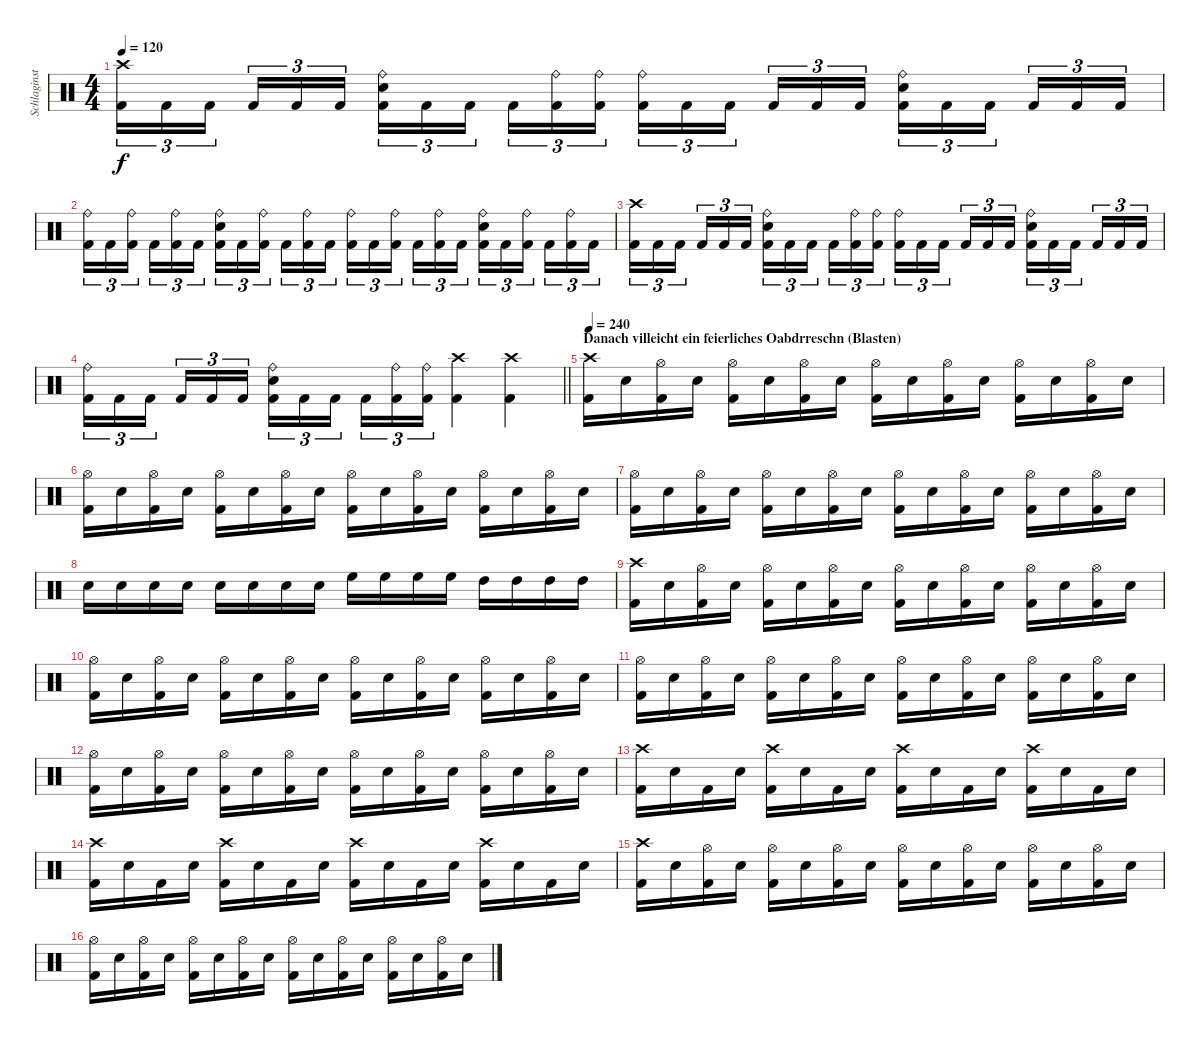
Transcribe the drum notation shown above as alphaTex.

\track ("Schlaginstrumente - Auswahl" "Schlaginst") {instrument percussion}
\staff {score}
\articulation defaults
\ts (4 4)
\tempo 120
\clef neutral
\ks c
("Kick (hit) 2" "Crash high (hit)").16{tu (3 2) dy f} "Kick (hit) 2".16{tu (3 2)} "Kick (hit) 2".16{tu (3 2) beam splitsecondary} "Kick (hit) 2".16{tu (3 2)} "Kick (hit) 2".16{tu (3 2)} "Kick (hit) 2".16{tu (3 2)} ("Kick (hit) 2" "Snare (hit) 2" "Ride (bell)").16{tu (3 2)} "Kick (hit) 2".16{tu (3 2)} "Kick (hit) 2".16{tu (3 2) beam splitsecondary} "Kick (hit) 2".16{tu (3 2)} ("Kick (hit) 2" "Ride (bell)").16{tu (3 2)} ("Kick (hit) 2" "Ride (bell)").16{tu (3 2)} ("Kick (hit) 2" "Ride (bell)").16{tu (3 2)} "Kick (hit) 2".16{tu (3 2)} "Kick (hit) 2".16{tu (3 2) beam splitsecondary} "Kick (hit) 2".16{tu (3 2)} "Kick (hit) 2".16{tu (3 2)} "Kick (hit) 2".16{tu (3 2)} ("Kick (hit) 2" "Snare (hit) 2" "Ride (bell)").16{tu (3 2)} "Kick (hit) 2".16{tu (3 2)} "Kick (hit) 2".16{tu (3 2) beam splitsecondary} "Kick (hit) 2".16{tu (3 2)} "Kick (hit) 2".16{tu (3 2)} "Kick (hit) 2".16{tu (3 2)} |
("Kick (hit) 2" "Ride (bell)").16{tu (3 2)} "Kick (hit) 2".16{tu (3 2)} ("Kick (hit) 2" "Ride (bell)").16{tu (3 2) beam splitsecondary} "Kick (hit) 2".16{tu (3 2)} ("Kick (hit) 2" "Ride (bell)").16{tu (3 2)} "Kick (hit) 2".16{tu (3 2)} ("Kick (hit) 2" "Snare (hit) 2" "Ride (bell)").16{tu (3 2)} "Kick (hit) 2".16{tu (3 2)} ("Kick (hit) 2" "Ride (bell)").16{tu (3 2) beam splitsecondary} "Kick (hit) 2".16{tu (3 2)} ("Kick (hit) 2" "Ride (bell)").16{tu (3 2)} "Kick (hit) 2".16{tu (3 2)} ("Kick (hit) 2" "Ride (bell)").16{tu (3 2)} "Kick (hit) 2".16{tu (3 2)} ("Kick (hit) 2" "Ride (bell)").16{tu (3 2) beam splitsecondary} "Kick (hit) 2".16{tu (3 2)} ("Kick (hit) 2" "Ride (bell)").16{tu (3 2)} "Kick (hit) 2".16{tu (3 2)} ("Kick (hit) 2" "Snare (hit) 2" "Ride (bell)").16{tu (3 2)} "Kick (hit) 2".16{tu (3 2)} ("Kick (hit) 2" "Ride (bell)").16{tu (3 2) beam splitsecondary} "Kick (hit) 2".16{tu (3 2)} ("Kick (hit) 2" "Ride (bell)").16{tu (3 2)} "Kick (hit) 2".16{tu (3 2)} |
("Kick (hit) 2" "Crash high (hit)").16{tu (3 2)} "Kick (hit) 2".16{tu (3 2)} "Kick (hit) 2".16{tu (3 2) beam splitsecondary} "Kick (hit) 2".16{tu (3 2)} "Kick (hit) 2".16{tu (3 2)} "Kick (hit) 2".16{tu (3 2)} ("Kick (hit) 2" "Snare (hit) 2" "Ride (bell)").16{tu (3 2)} "Kick (hit) 2".16{tu (3 2)} "Kick (hit) 2".16{tu (3 2) beam splitsecondary} "Kick (hit) 2".16{tu (3 2)} ("Kick (hit) 2" "Ride (bell)").16{tu (3 2)} ("Kick (hit) 2" "Ride (bell)").16{tu (3 2)} ("Kick (hit) 2" "Ride (bell)").16{tu (3 2)} "Kick (hit) 2".16{tu (3 2)} "Kick (hit) 2".16{tu (3 2) beam splitsecondary} "Kick (hit) 2".16{tu (3 2)} "Kick (hit) 2".16{tu (3 2)} "Kick (hit) 2".16{tu (3 2)} ("Kick (hit) 2" "Snare (hit) 2" "Ride (bell)").16{tu (3 2)} "Kick (hit) 2".16{tu (3 2)} "Kick (hit) 2".16{tu (3 2) beam splitsecondary} "Kick (hit) 2".16{tu (3 2)} "Kick (hit) 2".16{tu (3 2)} "Kick (hit) 2".16{tu (3 2)} |
\barLineRight lightlight
("Kick (hit) 2" "Ride (bell)").16{tu (3 2)} "Kick (hit) 2".16{tu (3 2)} "Kick (hit) 2".16{tu (3 2) beam splitsecondary} "Kick (hit) 2".16{tu (3 2)} "Kick (hit) 2".16{tu (3 2)} "Kick (hit) 2".16{tu (3 2)} ("Kick (hit) 2" "Snare (hit) 2" "Ride (bell)").16{tu (3 2)} "Kick (hit) 2".16{tu (3 2)} "Kick (hit) 2".16{tu (3 2) beam splitsecondary} "Kick (hit) 2".16{tu (3 2)} ("Kick (hit) 2" "Ride (bell)").16{tu (3 2)} ("Kick (hit) 2" "Ride (bell)").16{tu (3 2)} ("Kick (hit) 2" "Crash high (hit)").4 ("Kick (hit) 2" "Crash high (hit)").4 |
\section ("" "Danach villeicht ein feierliches Oabdrreschn (Blasten)")
\tempo 240
("Kick (hit) 2" "Crash high (hit)").16 "Snare (hit) 2".16 ("Kick (hit) 2" "Hi-Hat (open)").16 "Snare (hit) 2".16 ("Kick (hit) 2" "Hi-Hat (open)").16 "Snare (hit) 2".16 ("Kick (hit) 2" "Hi-Hat (open)").16 "Snare (hit) 2".16 ("Kick (hit) 2" "Hi-Hat (open)").16 "Snare (hit) 2".16 ("Kick (hit) 2" "Hi-Hat (open)").16 "Snare (hit) 2".16 ("Kick (hit) 2" "Hi-Hat (open)").16 "Snare (hit) 2".16 ("Kick (hit) 2" "Hi-Hat (open)").16 "Snare (hit) 2".16 |
("Kick (hit) 2" "Hi-Hat (open)").16 "Snare (hit) 2".16 ("Kick (hit) 2" "Hi-Hat (open)").16 "Snare (hit) 2".16 ("Kick (hit) 2" "Hi-Hat (open)").16 "Snare (hit) 2".16 ("Kick (hit) 2" "Hi-Hat (open)").16 "Snare (hit) 2".16 ("Kick (hit) 2" "Hi-Hat (open)").16 "Snare (hit) 2".16 ("Kick (hit) 2" "Hi-Hat (open)").16 "Snare (hit) 2".16 ("Kick (hit) 2" "Hi-Hat (open)").16 "Snare (hit) 2".16 ("Kick (hit) 2" "Hi-Hat (open)").16 "Snare (hit) 2".16 |
("Kick (hit) 2" "Hi-Hat (open)").16 "Snare (hit) 2".16 ("Kick (hit) 2" "Hi-Hat (open)").16 "Snare (hit) 2".16 ("Kick (hit) 2" "Hi-Hat (open)").16 "Snare (hit) 2".16 ("Kick (hit) 2" "Hi-Hat (open)").16 "Snare (hit) 2".16 ("Kick (hit) 2" "Hi-Hat (open)").16 "Snare (hit) 2".16 ("Kick (hit) 2" "Hi-Hat (open)").16 "Snare (hit) 2".16 ("Kick (hit) 2" "Hi-Hat (open)").16 "Snare (hit) 2".16 ("Kick (hit) 2" "Hi-Hat (open)").16 "Snare (hit) 2".16 |
"Snare (hit) 2".16 "Snare (hit) 2".16 "Snare (hit) 2".16 "Snare (hit) 2".16 "Snare (hit) 2".16 "Snare (hit) 2".16 "Snare (hit) 2".16 "Snare (hit) 2".16 "High Floor Tom (hit)".16 "High Floor Tom (hit)".16 "High Floor Tom (hit)".16 "High Floor Tom (hit)".16 "High Tom (hit)".16 "High Tom (hit)".16 "High Tom (hit)".16 "High Tom (hit)".16 |
("Kick (hit) 2" "Crash high (hit)").16 "Snare (hit) 2".16 ("Kick (hit) 2" "Hi-Hat (open)").16 "Snare (hit) 2".16 ("Kick (hit) 2" "Hi-Hat (open)").16 "Snare (hit) 2".16 ("Kick (hit) 2" "Hi-Hat (open)").16 "Snare (hit) 2".16 ("Kick (hit) 2" "Hi-Hat (open)").16 "Snare (hit) 2".16 ("Kick (hit) 2" "Hi-Hat (open)").16 "Snare (hit) 2".16 ("Kick (hit) 2" "Hi-Hat (open)").16 "Snare (hit) 2".16 ("Kick (hit) 2" "Hi-Hat (open)").16 "Snare (hit) 2".16 |
("Kick (hit) 2" "Hi-Hat (open)").16 "Snare (hit) 2".16 ("Kick (hit) 2" "Hi-Hat (open)").16 "Snare (hit) 2".16 ("Kick (hit) 2" "Hi-Hat (open)").16 "Snare (hit) 2".16 ("Kick (hit) 2" "Hi-Hat (open)").16 "Snare (hit) 2".16 ("Kick (hit) 2" "Hi-Hat (open)").16 "Snare (hit) 2".16 ("Kick (hit) 2" "Hi-Hat (open)").16 "Snare (hit) 2".16 ("Kick (hit) 2" "Hi-Hat (open)").16 "Snare (hit) 2".16 ("Kick (hit) 2" "Hi-Hat (open)").16 "Snare (hit) 2".16 |
("Kick (hit) 2" "Hi-Hat (open)").16 "Snare (hit) 2".16 ("Kick (hit) 2" "Hi-Hat (open)").16 "Snare (hit) 2".16 ("Kick (hit) 2" "Hi-Hat (open)").16 "Snare (hit) 2".16 ("Kick (hit) 2" "Hi-Hat (open)").16 "Snare (hit) 2".16 ("Kick (hit) 2" "Hi-Hat (open)").16 "Snare (hit) 2".16 ("Kick (hit) 2" "Hi-Hat (open)").16 "Snare (hit) 2".16 ("Kick (hit) 2" "Hi-Hat (open)").16 "Snare (hit) 2".16 ("Kick (hit) 2" "Hi-Hat (open)").16 "Snare (hit) 2".16 |
("Kick (hit) 2" "Hi-Hat (open)").16 "Snare (hit) 2".16 ("Kick (hit) 2" "Hi-Hat (open)").16 "Snare (hit) 2".16 ("Kick (hit) 2" "Hi-Hat (open)").16 "Snare (hit) 2".16 ("Kick (hit) 2" "Hi-Hat (open)").16 "Snare (hit) 2".16 ("Kick (hit) 2" "Hi-Hat (open)").16 "Snare (hit) 2".16 ("Kick (hit) 2" "Hi-Hat (open)").16 "Snare (hit) 2".16 ("Kick (hit) 2" "Hi-Hat (open)").16 "Snare (hit) 2".16 ("Kick (hit) 2" "Hi-Hat (open)").16 "Snare (hit) 2".16 |
("Kick (hit) 2" "Crash high (hit)").16 "Snare (hit) 2".16 "Kick (hit) 2".16 "Snare (hit) 2".16 ("Kick (hit) 2" "Crash high (hit)").16 "Snare (hit) 2".16 "Kick (hit) 2".16 "Snare (hit) 2".16 ("Kick (hit) 2" "Crash high (hit)").16 "Snare (hit) 2".16 "Kick (hit) 2".16 "Snare (hit) 2".16 ("Kick (hit) 2" "Crash high (hit)").16 "Snare (hit) 2".16 "Kick (hit) 2".16 "Snare (hit) 2".16 |
("Kick (hit) 2" "Crash high (hit)").16 "Snare (hit) 2".16 "Kick (hit) 2".16 "Snare (hit) 2".16 ("Kick (hit) 2" "Crash high (hit)").16 "Snare (hit) 2".16 "Kick (hit) 2".16 "Snare (hit) 2".16 ("Kick (hit) 2" "Crash high (hit)").16 "Snare (hit) 2".16 "Kick (hit) 2".16 "Snare (hit) 2".16 ("Kick (hit) 2" "Crash high (hit)").16 "Snare (hit) 2".16 "Kick (hit) 2".16 "Snare (hit) 2".16 |
("Kick (hit) 2" "Crash high (hit)").16 "Snare (hit) 2".16 ("Kick (hit) 2" "Hi-Hat (open)").16 "Snare (hit) 2".16 ("Kick (hit) 2" "Hi-Hat (open)").16 "Snare (hit) 2".16 ("Kick (hit) 2" "Hi-Hat (open)").16 "Snare (hit) 2".16 ("Kick (hit) 2" "Hi-Hat (open)").16 "Snare (hit) 2".16 ("Kick (hit) 2" "Hi-Hat (open)").16 "Snare (hit) 2".16 ("Kick (hit) 2" "Hi-Hat (open)").16 "Snare (hit) 2".16 ("Kick (hit) 2" "Hi-Hat (open)").16 "Snare (hit) 2".16 |
("Kick (hit) 2" "Hi-Hat (open)").16 "Snare (hit) 2".16 ("Kick (hit) 2" "Hi-Hat (open)").16 "Snare (hit) 2".16 ("Kick (hit) 2" "Hi-Hat (open)").16 "Snare (hit) 2".16 ("Kick (hit) 2" "Hi-Hat (open)").16 "Snare (hit) 2".16 ("Kick (hit) 2" "Hi-Hat (open)").16 "Snare (hit) 2".16 ("Kick (hit) 2" "Hi-Hat (open)").16 "Snare (hit) 2".16 ("Kick (hit) 2" "Hi-Hat (open)").16 "Snare (hit) 2".16 ("Kick (hit) 2" "Hi-Hat (open)").16 "Snare (hit) 2".16
